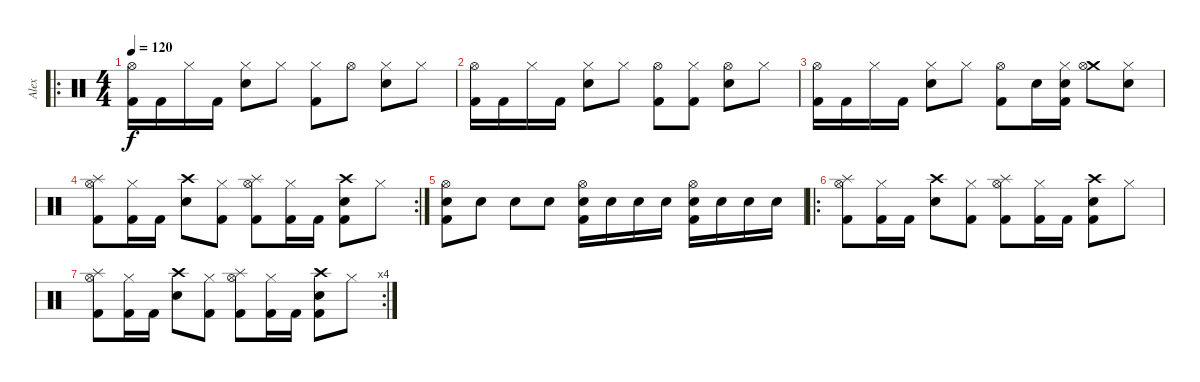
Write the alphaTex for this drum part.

\track ("Alex" "Alex") {instrument percussion}
\staff {score}
\articulation defaults
\ro
\ts (4 4)
\tempo 120
\clef neutral
\ks c
("Hi-Hat (open)" "Kick (hit) 2").16{dy f} "Kick (hit) 2".16 "Hi-Hat (closed)".16 "Kick (hit) 2".16 ("Hi-Hat (closed)" "Electric Snare (hit)").8 "Hi-Hat (closed)".8 ("Hi-Hat (closed)" "Kick (hit) 2").8 "Hi-Hat (open)".8 ("Hi-Hat (closed)" "Electric Snare (hit)").8 "Hi-Hat (closed)".8 |
("Hi-Hat (open)" "Kick (hit) 2").16 "Kick (hit) 2".16 "Hi-Hat (closed)".16 "Kick (hit) 2".16 ("Hi-Hat (closed)" "Electric Snare (hit)").8 "Hi-Hat (closed)".8 ("Hi-Hat (open)" "Kick (hit) 2").8 ("Hi-Hat (closed)" "Kick (hit) 2").8 ("Hi-Hat (open)" "Electric Snare (hit)").8 "Hi-Hat (closed)".8 |
("Hi-Hat (open)" "Kick (hit) 2").16 "Kick (hit) 2".16 "Hi-Hat (closed)".16 "Kick (hit) 2".16 ("Hi-Hat (closed)" "Electric Snare (hit)").8 "Hi-Hat (closed)".8 ("Hi-Hat (open)" "Kick (hit) 2").8 "Electric Snare (hit)".16 ("Hi-Hat (closed)" "Electric Snare (hit)" "Kick (hit) 2").16 ("Crash medium (hit)" "Hi-Hat (open)").8 ("Hi-Hat (closed)" "Electric Snare (hit)").8 |
\rc 2
("Splash (hit)" "Hi-Hat (open)" "Kick (hit) 2").8 ("Hi-Hat (closed)" "Kick (hit) 2").16 "Kick (hit) 2".16 ("Crash high (hit)" "Electric Snare (hit)").8 ("Hi-Hat (closed)" "Kick (hit) 2").8 ("Splash (hit)" "Hi-Hat (open)" "Kick (hit) 2").8 ("Hi-Hat (closed)" "Kick (hit) 2").16 "Kick (hit) 2".16 ("Crash high (hit)" "Electric Snare (hit)" "Kick (hit) 2").8 "Hi-Hat (closed)".8 |
("Hi-Hat (open)" "Electric Snare (hit)" "Kick (hit) 2").8 "Electric Snare (hit)".8 "Electric Snare (hit)".8 "Electric Snare (hit)".8 ("Hi-Hat (open)" "Electric Snare (hit)" "Kick (hit) 2").16 "Electric Snare (hit)".16 "Electric Snare (hit)".16 "Electric Snare (hit)".16 ("Hi-Hat (open)" "Electric Snare (hit)" "Kick (hit) 2").16 "Electric Snare (hit)".16 "Electric Snare (hit)".16 "Electric Snare (hit)".16 |
\ro
("Splash (hit)" "Hi-Hat (open)" "Kick (hit) 2").8 ("Hi-Hat (closed)" "Kick (hit) 2").16 "Kick (hit) 2".16 ("Crash high (hit)" "Electric Snare (hit)").8 ("Hi-Hat (closed)" "Kick (hit) 2").8 ("Splash (hit)" "Hi-Hat (open)" "Kick (hit) 2").8 ("Hi-Hat (closed)" "Kick (hit) 2").16 "Kick (hit) 2".16 ("Crash high (hit)" "Electric Snare (hit)" "Kick (hit) 2").8 "Hi-Hat (closed)".8 |
\rc 4
("Splash (hit)" "Hi-Hat (open)" "Kick (hit) 2").8 ("Hi-Hat (closed)" "Kick (hit) 2").16 "Kick (hit) 2".16 ("Crash high (hit)" "Electric Snare (hit)").8 ("Hi-Hat (closed)" "Kick (hit) 2").8 ("Splash (hit)" "Hi-Hat (open)" "Kick (hit) 2").8 ("Hi-Hat (closed)" "Kick (hit) 2").16 "Kick (hit) 2".16 ("Crash high (hit)" "Electric Snare (hit)" "Kick (hit) 2").8 "Hi-Hat (closed)".8
